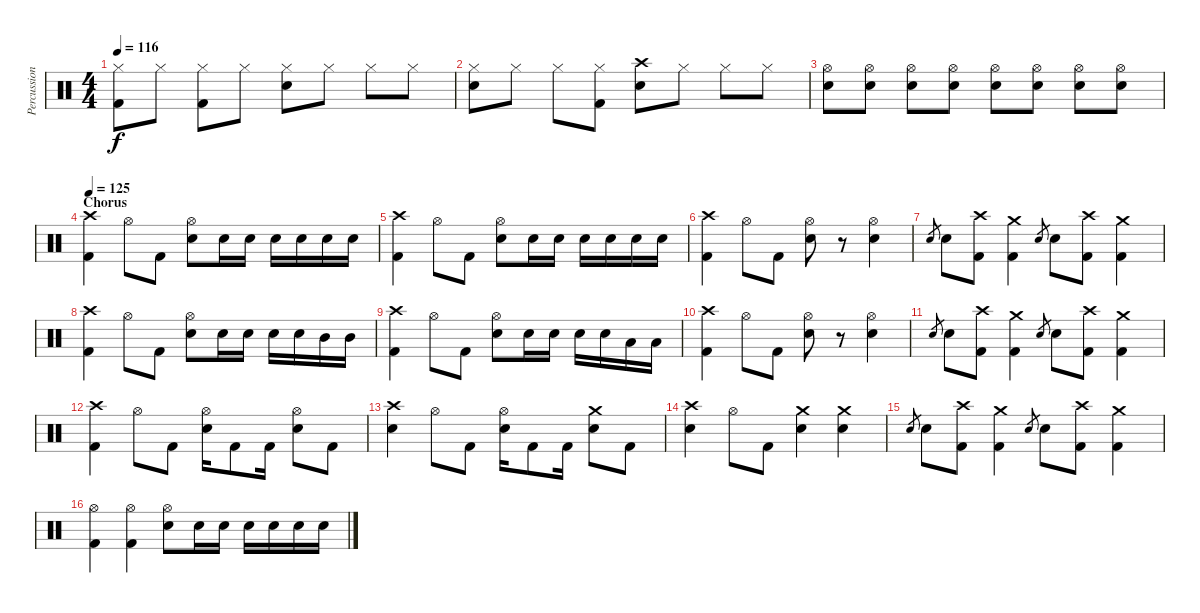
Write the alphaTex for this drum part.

\track ("Percussion" "Percussion") {instrument percussion}
\staff {score}
\articulation defaults
\ts (4 4)
\tempo 116
\clef neutral
\ks c
("Kick (hit) 2" "Hi-Hat (closed)").8{dy f} "Hi-Hat (closed)".8 ("Kick (hit) 2" "Hi-Hat (closed)").8 "Hi-Hat (closed)".8 ("Electric Snare (hit)" "Hi-Hat (closed)").8 "Hi-Hat (closed)".8 "Hi-Hat (closed)".8 "Hi-Hat (closed)".8 |
("Electric Snare (hit)" "Hi-Hat (closed)").8 "Hi-Hat (closed)".8 "Hi-Hat (closed)".8 ("Kick (hit) 2" "Hi-Hat (closed)").8 ("Electric Snare (hit)" "Crash high (hit)").8 "Hi-Hat (closed)".8 "Hi-Hat (closed)".8 "Hi-Hat (closed)".8 |
("Electric Snare (hit)" "Hi-Hat (open)").8 ("Electric Snare (hit)" "Hi-Hat (open)").8 ("Electric Snare (hit)" "Hi-Hat (open)").8 ("Electric Snare (hit)" "Hi-Hat (open)").8 ("Electric Snare (hit)" "Hi-Hat (open)").8 ("Electric Snare (hit)" "Hi-Hat (open)").8 ("Electric Snare (hit)" "Hi-Hat (open)").8 ("Electric Snare (hit)" "Hi-Hat (open)").8 |
\section ("" "Chorus")
\tempo 125
("Kick (hit) 2" "Crash high (hit)").4 "Hi-Hat (open)".8 "Kick (hit) 2".8 ("Electric Snare (hit)" "Hi-Hat (open)").8 "Electric Snare (hit)".16 "Electric Snare (hit)".16 "Electric Snare (hit)".16 "Electric Snare (hit)".16 "Electric Snare (hit)".16 "Electric Snare (hit)".16 |
("Kick (hit) 2" "Crash high (hit)").4 "Hi-Hat (open)".8 "Kick (hit) 2".8 ("Electric Snare (hit)" "Hi-Hat (open)").8 "Electric Snare (hit)".16 "Electric Snare (hit)".16 "Electric Snare (hit)".16 "Electric Snare (hit)".16 "Electric Snare (hit)".16 "Electric Snare (hit)".16 |
("Kick (hit) 2" "Crash high (hit)").4 "Hi-Hat (open)".8 "Kick (hit) 2".8 ("Electric Snare (hit)" "Hi-Hat (open)").8 r.8 ("Electric Snare (hit)" "Hi-Hat (open)").4 |
"Electric Snare (hit)".8{gr} "Electric Snare (hit)".8 ("Kick (hit) 2" "Crash high (hit)").8 ("Kick (hit) 2" "Crash medium (hit)").4 "Electric Snare (hit)".8{gr} "Electric Snare (hit)".8 ("Kick (hit) 2" "Crash high (hit)").8 ("Kick (hit) 2" "Crash medium (hit)").4 |
("Kick (hit) 2" "Crash high (hit)").4 "Hi-Hat (open)".8 "Kick (hit) 2".8 ("Electric Snare (hit)" "Hi-Hat (open)").8 "Electric Snare (hit)".16 "Electric Snare (hit)".16 "Electric Snare (hit)".16 "Electric Snare (hit)".16 "Mid Tom (hit)".16 "Mid Tom (hit)".16 |
("Kick (hit) 2" "Crash high (hit)").4 "Hi-Hat (open)".8 "Kick (hit) 2".8 ("Electric Snare (hit)" "Hi-Hat (open)").8 "Electric Snare (hit)".16 "Electric Snare (hit)".16 "Electric Snare (hit)".16 "Electric Snare (hit)".16 "Low Tom (hit)".16 "Low Tom (hit)".16 |
("Kick (hit) 2" "Crash high (hit)").4 "Hi-Hat (open)".8 "Kick (hit) 2".8 ("Electric Snare (hit)" "Hi-Hat (open)").8 r.8 ("Electric Snare (hit)" "Hi-Hat (open)").4 |
"Electric Snare (hit)".8{gr} "Electric Snare (hit)".8 ("Kick (hit) 2" "Crash high (hit)").8 ("Kick (hit) 2" "Crash medium (hit)").4 "Electric Snare (hit)".8{gr} "Electric Snare (hit)".8 ("Kick (hit) 2" "Crash high (hit)").8 ("Kick (hit) 2" "Crash medium (hit)").4 |
("Kick (hit) 2" "Crash high (hit)").4 "Hi-Hat (open)".8 "Kick (hit) 2".8 ("Electric Snare (hit)" "Hi-Hat (open)").16 "Kick (hit) 2".8 "Kick (hit) 2".16 ("Electric Snare (hit)" "Hi-Hat (open)").8 "Kick (hit) 2".8 |
("Electric Snare (hit)" "Crash high (hit)").4 "Hi-Hat (open)".8 "Kick (hit) 2".8 ("Electric Snare (hit)" "Hi-Hat (open)").16 "Kick (hit) 2".8 "Kick (hit) 2".16 ("Electric Snare (hit)" "Crash medium (hit)").8 "Kick (hit) 2".8 |
("Electric Snare (hit)" "Crash high (hit)").4 "Hi-Hat (open)".8 "Kick (hit) 2".8 ("Electric Snare (hit)" "Crash medium (hit)").4 ("Electric Snare (hit)" "Crash medium (hit)").4 |
"Electric Snare (hit)".8{gr} "Electric Snare (hit)".8 ("Kick (hit) 2" "Crash high (hit)").8 ("Kick (hit) 2" "Crash medium (hit)").4 "Electric Snare (hit)".8{gr} "Electric Snare (hit)".8 ("Kick (hit) 2" "Crash high (hit)").8 ("Kick (hit) 2" "Crash medium (hit)").4 |
("Kick (hit) 2" "Hi-Hat (open)").4 ("Kick (hit) 2" "Hi-Hat (open)").4 ("Electric Snare (hit)" "Hi-Hat (open)").8 "Electric Snare (hit)".16 "Electric Snare (hit)".16 "Electric Snare (hit)".16 "Electric Snare (hit)".16 "Electric Snare (hit)".16 "Electric Snare (hit)".16
